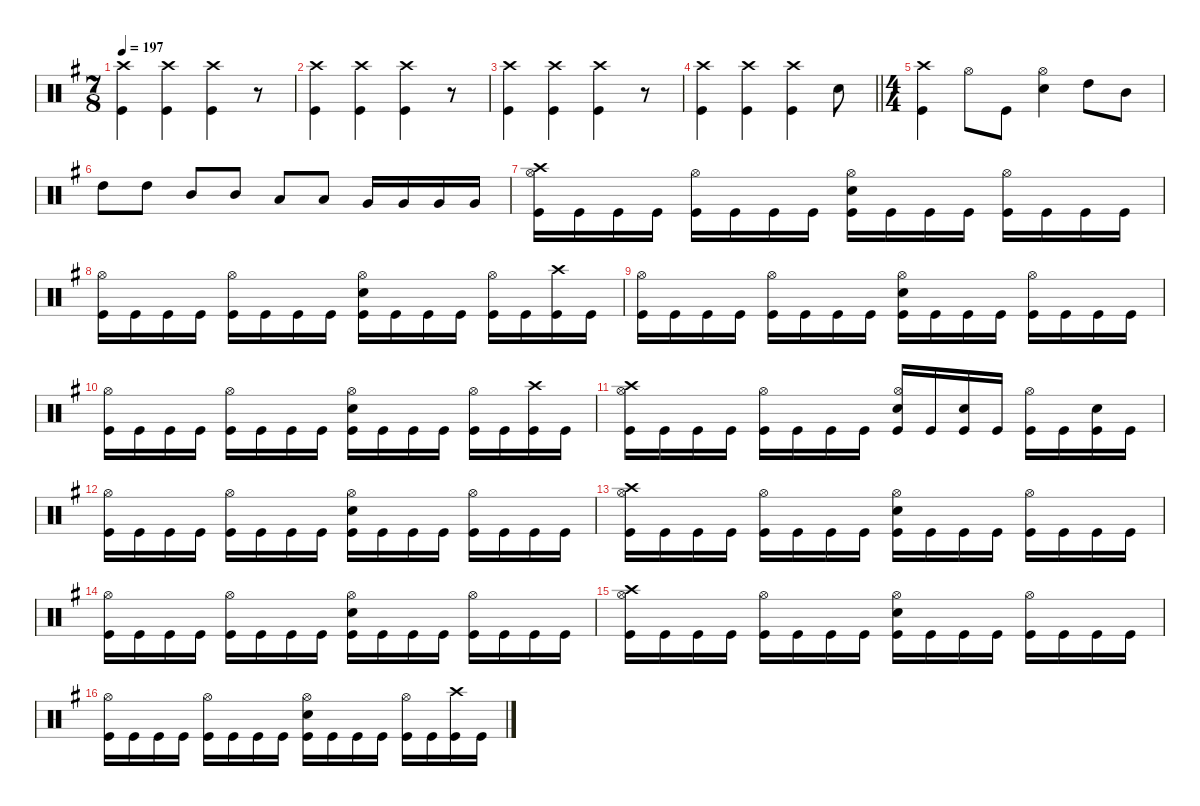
\defaultSystemsLayout 4
\hideDynamics
\bracketExtendMode nobrackets
\singleTrackTrackNamePolicy hidden
\multiTrackTrackNamePolicy hidden
\firstSystemTrackNameMode fullname
\firstSystemTrackNameOrientation horizontal
\otherSystemsTrackNameOrientation horizontal
\track ("Drums" "drm.") {defaultSystemsLayout 4 instrument percussion}
\staff {score}
\articulation defaults
\ts (7 8)
\tempo 197
\clef neutral
\ks eminor
("Crash high (hit)"{acc forcenatural} "Kick (hit)"{acc forcenatural}).4{dy f beam Down} ("Crash high (hit)"{acc forcenatural} "Kick (hit)"{acc forcenatural}).4{beam Down} ("Crash high (hit)"{acc forcenatural} "Kick (hit)"{acc forcenatural}).4{beam Down} r.8{beam Down} |
("Crash high (hit)"{acc forcenatural} "Kick (hit)"{acc forcenatural}).4{beam Down} ("Crash high (hit)"{acc forcenatural} "Kick (hit)"{acc forcenatural}).4{beam Down} ("Crash high (hit)"{acc forcenatural} "Kick (hit)"{acc forcenatural}).4{beam Down} r.8{beam Down} |
("Crash high (hit)"{acc forcenatural} "Kick (hit)"{acc forcenatural}).4{beam Down} ("Crash high (hit)"{acc forcenatural} "Kick (hit)"{acc forcenatural}).4{beam Down} ("Crash high (hit)"{acc forcenatural} "Kick (hit)"{acc forcenatural}).4{beam Down} r.8{beam Down} |
\barLineRight lightlight
("Crash high (hit)"{acc forcenatural} "Kick (hit)"{acc forcenatural}).4{beam Down} ("Crash high (hit)"{acc forcenatural} "Kick (hit)"{acc forcenatural}).4{beam Down} ("Crash high (hit)"{acc forcenatural} "Kick (hit)"{acc forcenatural}).4{beam Down} "Snare (hit) 2"{acc forcenatural}.8{beam Down} |
\ts (4 4)
\beaming (8 2 2 2 2)
("Crash high (hit)"{acc forcenatural} "Kick (hit)"{acc forcenatural}).4{beam Down} "Hi-Hat (open)"{acc forcenatural}.8{beam Down} "Kick (hit)"{acc forcenatural}.8{beam Down} ("Hi-Hat (open)"{acc forcenatural} "Snare (hit) 2"{acc forcenatural}).4{beam Down} "High Tom (hit)"{acc forcenatural}.8{beam Down beam merge} "Mid Tom (hit)"{acc forcenatural}.8{beam Down} |
"High Tom (hit)"{acc forcenatural}.8{beam Down} "High Tom (hit)"{acc forcenatural}.8{beam Down} "Mid Tom (hit)"{acc forcenatural}.8{beam Up} "Mid Tom (hit)"{acc forcenatural}.8{beam Up} "Low Tom (hit)"{acc forcenatural}.8{beam Up} "Low Tom (hit)"{acc forcenatural}.8{dy ff beam Up beam split} "Very Low Tom (hit)"{acc forcenatural}.16{dy f beam Up} "Very Low Tom (hit)"{acc forcenatural}.16{dy fff beam Up beam merge} "Very Low Tom (hit)"{acc forcenatural}.16{beam Up beam merge} "Very Low Tom (hit)"{acc forcenatural}.16{beam Up} |
("Crash high (hit)"{acc forcenatural} "Hi-Hat (open)"{acc forcenatural} "Kick (hit)"{acc forcenatural}).16{dy f beam Down} "Kick (hit)"{acc forcenatural}.16{beam Down} "Kick (hit)"{acc forcenatural}.16{beam Down} "Kick (hit)"{acc forcenatural}.16{beam Down} ("Hi-Hat (open)"{acc forcenatural} "Kick (hit)"{acc forcenatural}).16{beam Down} "Kick (hit)"{acc forcenatural}.16{beam Down} "Kick (hit)"{acc forcenatural}.16{beam Down} "Kick (hit)"{acc forcenatural}.16{beam Down} ("Hi-Hat (open)"{acc forcenatural} "Snare (hit) 2"{acc forcenatural} "Kick (hit)"{acc forcenatural}).16{beam Down} "Kick (hit)"{acc forcenatural}.16{beam Down} "Kick (hit)"{acc forcenatural}.16{beam Down} "Kick (hit)"{acc forcenatural}.16{beam Down} ("Hi-Hat (open)"{acc forcenatural} "Kick (hit)"{acc forcenatural}).16{beam Down} "Kick (hit)"{acc forcenatural}.16{beam Down} "Kick (hit)"{acc forcenatural}.16{beam Down} "Kick (hit)"{acc forcenatural}.16{beam Down} |
("Hi-Hat (open)"{acc forcenatural} "Kick (hit)"{acc forcenatural}).16{beam Down} "Kick (hit)"{acc forcenatural}.16{beam Down} "Kick (hit)"{acc forcenatural}.16{beam Down} "Kick (hit)"{acc forcenatural}.16{beam Down} ("Hi-Hat (open)"{acc forcenatural} "Kick (hit)"{acc forcenatural}).16{beam Down} "Kick (hit)"{acc forcenatural}.16{beam Down} "Kick (hit)"{acc forcenatural}.16{beam Down} "Kick (hit)"{acc forcenatural}.16{beam Down} ("Hi-Hat (open)"{acc forcenatural} "Snare (hit) 2"{acc forcenatural} "Kick (hit)"{acc forcenatural}).16{beam Down} "Kick (hit)"{acc forcenatural}.16{beam Down} "Kick (hit)"{acc forcenatural}.16{beam Down} "Kick (hit)"{acc forcenatural}.16{beam Down} ("Hi-Hat (open)"{acc forcenatural} "Kick (hit)"{acc forcenatural}).16{beam Down} "Kick (hit)"{acc forcenatural}.16{beam Down} ("Crash high (hit)"{acc forcenatural} "Kick (hit)"{acc forcenatural}).16{beam Down} "Kick (hit)"{acc forcenatural}.16{beam Down} |
("Hi-Hat (open)"{acc forcenatural} "Kick (hit)"{acc forcenatural}).16{beam Down} "Kick (hit)"{acc forcenatural}.16{beam Down} "Kick (hit)"{acc forcenatural}.16{beam Down} "Kick (hit)"{acc forcenatural}.16{beam Down} ("Hi-Hat (open)"{acc forcenatural} "Kick (hit)"{acc forcenatural}).16{beam Down} "Kick (hit)"{acc forcenatural}.16{beam Down} "Kick (hit)"{acc forcenatural}.16{beam Down} "Kick (hit)"{acc forcenatural}.16{beam Down} ("Hi-Hat (open)"{acc forcenatural} "Snare (hit) 2"{acc forcenatural} "Kick (hit)"{acc forcenatural}).16{beam Down} "Kick (hit)"{acc forcenatural}.16{beam Down} "Kick (hit)"{acc forcenatural}.16{beam Down} "Kick (hit)"{acc forcenatural}.16{beam Down} ("Hi-Hat (open)"{acc forcenatural} "Kick (hit)"{acc forcenatural}).16{beam Down} "Kick (hit)"{acc forcenatural}.16{beam Down} "Kick (hit)"{acc forcenatural}.16{beam Down} "Kick (hit)"{acc forcenatural}.16{beam Down} |
("Hi-Hat (open)"{acc forcenatural} "Kick (hit)"{acc forcenatural}).16{beam Down} "Kick (hit)"{acc forcenatural}.16{beam Down} "Kick (hit)"{acc forcenatural}.16{beam Down} "Kick (hit)"{acc forcenatural}.16{beam Down} ("Hi-Hat (open)"{acc forcenatural} "Kick (hit)"{acc forcenatural}).16{beam Down} "Kick (hit)"{acc forcenatural}.16{beam Down} "Kick (hit)"{acc forcenatural}.16{beam Down} "Kick (hit)"{acc forcenatural}.16{beam Down} ("Hi-Hat (open)"{acc forcenatural} "Snare (hit) 2"{acc forcenatural} "Kick (hit)"{acc forcenatural}).16{beam Down} "Kick (hit)"{acc forcenatural}.16{beam Down} "Kick (hit)"{acc forcenatural}.16{beam Down} "Kick (hit)"{acc forcenatural}.16{beam Down} ("Hi-Hat (open)"{acc forcenatural} "Kick (hit)"{acc forcenatural}).16{beam Down} "Kick (hit)"{acc forcenatural}.16{beam Down} ("Crash high (hit)"{acc forcenatural} "Kick (hit)"{acc forcenatural}).16{beam Down} "Kick (hit)"{acc forcenatural}.16{beam Down} |
("Crash high (hit)"{acc forcenatural} "Hi-Hat (open)"{acc forcenatural} "Kick (hit)"{acc forcenatural}).16{beam Down} "Kick (hit)"{acc forcenatural}.16{beam Down} "Kick (hit)"{acc forcenatural}.16{beam Down} "Kick (hit)"{acc forcenatural}.16{beam Down} ("Hi-Hat (open)"{acc forcenatural} "Kick (hit)"{acc forcenatural}).16{beam Down} "Kick (hit)"{acc forcenatural}.16{beam Down} "Kick (hit)"{acc forcenatural}.16{beam Down} "Kick (hit)"{acc forcenatural}.16{beam Down} ("Hi-Hat (open)"{acc forcenatural} "Snare (hit) 2"{acc forcenatural} "Kick (hit)"{acc forcenatural}).16{beam Up} "Kick (hit)"{acc forcenatural}.16{beam Up} ("Snare (hit) 2"{acc forcenatural} "Kick (hit)"{acc forcenatural}).16{beam Up} "Kick (hit)"{acc forcenatural}.16{beam Up} ("Hi-Hat (open)"{acc forcenatural} "Kick (hit)"{acc forcenatural}).16{beam Down} "Kick (hit)"{acc forcenatural}.16{beam Down} ("Snare (hit) 2"{acc forcenatural} "Kick (hit)"{acc forcenatural}).16{beam Down} "Kick (hit)"{acc forcenatural}.16{beam Down} |
("Hi-Hat (open)"{acc forcenatural} "Kick (hit)"{acc forcenatural}).16{beam Down} "Kick (hit)"{acc forcenatural}.16{beam Down} "Kick (hit)"{acc forcenatural}.16{beam Down} "Kick (hit)"{acc forcenatural}.16{beam Down} ("Hi-Hat (open)"{acc forcenatural} "Kick (hit)"{acc forcenatural}).16{beam Down} "Kick (hit)"{acc forcenatural}.16{beam Down} "Kick (hit)"{acc forcenatural}.16{beam Down} "Kick (hit)"{acc forcenatural}.16{beam Down} ("Hi-Hat (open)"{acc forcenatural} "Snare (hit) 2"{acc forcenatural} "Kick (hit)"{acc forcenatural}).16{beam Down} "Kick (hit)"{acc forcenatural}.16{beam Down} "Kick (hit)"{acc forcenatural}.16{beam Down} "Kick (hit)"{acc forcenatural}.16{beam Down} ("Hi-Hat (open)"{acc forcenatural} "Kick (hit)"{acc forcenatural}).16{beam Down} "Kick (hit)"{acc forcenatural}.16{beam Down} "Kick (hit)"{acc forcenatural}.16{beam Down} "Kick (hit)"{acc forcenatural}.16{beam Down} |
("Crash high (hit)"{acc forcenatural} "Hi-Hat (open)"{acc forcenatural} "Kick (hit)"{acc forcenatural}).16{beam Down} "Kick (hit)"{acc forcenatural}.16{beam Down} "Kick (hit)"{acc forcenatural}.16{beam Down} "Kick (hit)"{acc forcenatural}.16{beam Down} ("Hi-Hat (open)"{acc forcenatural} "Kick (hit)"{acc forcenatural}).16{beam Down} "Kick (hit)"{acc forcenatural}.16{beam Down} "Kick (hit)"{acc forcenatural}.16{beam Down} "Kick (hit)"{acc forcenatural}.16{beam Down} ("Hi-Hat (open)"{acc forcenatural} "Snare (hit) 2"{acc forcenatural} "Kick (hit)"{acc forcenatural}).16{beam Down} "Kick (hit)"{acc forcenatural}.16{beam Down} "Kick (hit)"{acc forcenatural}.16{beam Down} "Kick (hit)"{acc forcenatural}.16{beam Down} ("Hi-Hat (open)"{acc forcenatural} "Kick (hit)"{acc forcenatural}).16{beam Down} "Kick (hit)"{acc forcenatural}.16{beam Down} "Kick (hit)"{acc forcenatural}.16{beam Down} "Kick (hit)"{acc forcenatural}.16{beam Down} |
("Hi-Hat (open)"{acc forcenatural} "Kick (hit)"{acc forcenatural}).16{beam Down} "Kick (hit)"{acc forcenatural}.16{beam Down} "Kick (hit)"{acc forcenatural}.16{beam Down} "Kick (hit)"{acc forcenatural}.16{beam Down} ("Hi-Hat (open)"{acc forcenatural} "Kick (hit)"{acc forcenatural}).16{beam Down} "Kick (hit)"{acc forcenatural}.16{beam Down} "Kick (hit)"{acc forcenatural}.16{beam Down} "Kick (hit)"{acc forcenatural}.16{beam Down} ("Hi-Hat (open)"{acc forcenatural} "Snare (hit) 2"{acc forcenatural} "Kick (hit)"{acc forcenatural}).16{beam Down} "Kick (hit)"{acc forcenatural}.16{beam Down} "Kick (hit)"{acc forcenatural}.16{beam Down} "Kick (hit)"{acc forcenatural}.16{beam Down} ("Hi-Hat (open)"{acc forcenatural} "Kick (hit)"{acc forcenatural}).16{beam Down} "Kick (hit)"{acc forcenatural}.16{beam Down} "Kick (hit)"{acc forcenatural}.16{beam Down} "Kick (hit)"{acc forcenatural}.16{beam Down} |
("Crash high (hit)"{acc forcenatural} "Hi-Hat (open)"{acc forcenatural} "Kick (hit)"{acc forcenatural}).16{beam Down} "Kick (hit)"{acc forcenatural}.16{beam Down} "Kick (hit)"{acc forcenatural}.16{beam Down} "Kick (hit)"{acc forcenatural}.16{beam Down} ("Hi-Hat (open)"{acc forcenatural} "Kick (hit)"{acc forcenatural}).16{beam Down} "Kick (hit)"{acc forcenatural}.16{beam Down} "Kick (hit)"{acc forcenatural}.16{beam Down} "Kick (hit)"{acc forcenatural}.16{beam Down} ("Hi-Hat (open)"{acc forcenatural} "Snare (hit) 2"{acc forcenatural} "Kick (hit)"{acc forcenatural}).16{beam Down} "Kick (hit)"{acc forcenatural}.16{beam Down} "Kick (hit)"{acc forcenatural}.16{beam Down} "Kick (hit)"{acc forcenatural}.16{beam Down} ("Hi-Hat (open)"{acc forcenatural} "Kick (hit)"{acc forcenatural}).16{beam Down} "Kick (hit)"{acc forcenatural}.16{beam Down} "Kick (hit)"{acc forcenatural}.16{beam Down} "Kick (hit)"{acc forcenatural}.16{beam Down} |
("Hi-Hat (open)"{acc forcenatural} "Kick (hit)"{acc forcenatural}).16{beam Down} "Kick (hit)"{acc forcenatural}.16{beam Down} "Kick (hit)"{acc forcenatural}.16{beam Down} "Kick (hit)"{acc forcenatural}.16{beam Down} ("Hi-Hat (open)"{acc forcenatural} "Kick (hit)"{acc forcenatural}).16{beam Down} "Kick (hit)"{acc forcenatural}.16{beam Down} "Kick (hit)"{acc forcenatural}.16{beam Down} "Kick (hit)"{acc forcenatural}.16{beam Down} ("Hi-Hat (open)"{acc forcenatural} "Snare (hit) 2"{acc forcenatural} "Kick (hit)"{acc forcenatural}).16{beam Down} "Kick (hit)"{acc forcenatural}.16{beam Down} "Kick (hit)"{acc forcenatural}.16{beam Down} "Kick (hit)"{acc forcenatural}.16{beam Down} ("Hi-Hat (open)"{acc forcenatural} "Kick (hit)"{acc forcenatural}).16{beam Down} "Kick (hit)"{acc forcenatural}.16{beam Down} ("Crash high (hit)"{acc forcenatural} "Kick (hit)"{acc forcenatural}).16{beam Down} "Kick (hit)"{acc forcenatural}.16{beam Down}
